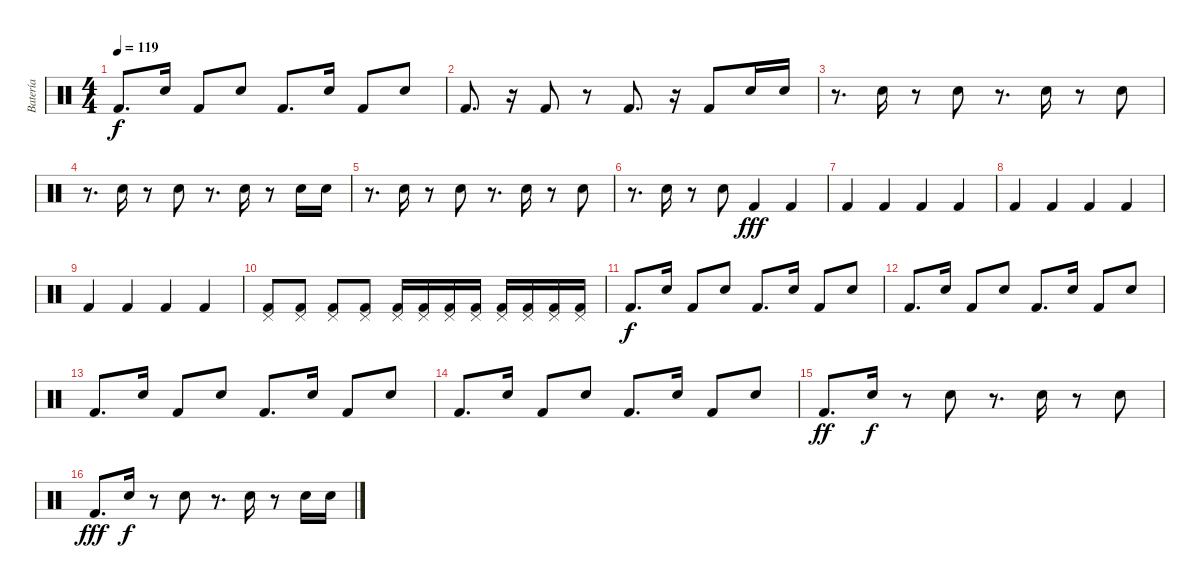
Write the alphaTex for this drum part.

\track ("Batería" "Batería") {instrument percussion}
\staff {score}
\articulation defaults
\ts (4 4)
\tempo 119
\clef neutral
\ks c "Kick (hit) 2".8{d dy f} "Electric Snare (hit)".16 "Kick (hit) 2".8 "Electric Snare (hit)".8 "Kick (hit) 2".8{d} "Electric Snare (hit)".16 "Kick (hit) 2".8 "Electric Snare (hit)".8
|
"Kick (hit) 2".8{d} r.16 "Kick (hit) 2".8 r.8 "Kick (hit) 2".8{d} r.16 "Kick (hit) 2".8 "Electric Snare (hit)".16 "Electric Snare (hit)".16 |
r.8{d} "Electric Snare (hit)".16 r.8 "Electric Snare (hit)".8 r.8{d} "Electric Snare (hit)".16 r.8 "Electric Snare (hit)".8 |
r.8{d} "Electric Snare (hit)".16 r.8 "Electric Snare (hit)".8 r.8{d} "Electric Snare (hit)".16 r.8 "Electric Snare (hit)".16 "Electric Snare (hit)".16 |
r.8{d} "Electric Snare (hit)".16 r.8 "Electric Snare (hit)".8 r.8{d} "Electric Snare (hit)".16 r.8 "Electric Snare (hit)".8 |
r.8{d} "Electric Snare (hit)".16 r.8 "Electric Snare (hit)".8 "Kick (hit) 2".4{dy fff} "Kick (hit) 2".4 |
"Kick (hit) 2".4 "Kick (hit) 2".4 "Kick (hit) 2".4 "Kick (hit) 2".4 |
"Kick (hit) 2".4 "Kick (hit) 2".4 "Kick (hit) 2".4 "Kick (hit) 2".4 |
"Kick (hit) 2".4 "Kick (hit) 2".4 "Kick (hit) 2".4 "Kick (hit) 2".4 |
("Kick (hit) 2" "Pedal Hi-Hat (hit)").8{volume 16 balance 15} ("Kick (hit) 2" "Pedal Hi-Hat (hit)").8{balance 1} ("Kick (hit) 2" "Pedal Hi-Hat (hit)").8{balance 15} ("Kick (hit) 2" "Pedal Hi-Hat (hit)").8{balance 1} ("Kick (hit) 2" "Pedal Hi-Hat (hit)").16{balance 4} ("Kick (hit) 2" "Pedal Hi-Hat (hit)").16{balance 8} ("Kick (hit) 2" "Pedal Hi-Hat (hit)").16{balance 11} ("Kick (hit) 2" "Pedal Hi-Hat (hit)").16{balance 15} ("Kick (hit) 2" "Pedal Hi-Hat (hit)").16{balance 13} ("Kick (hit) 2" "Pedal Hi-Hat (hit)").16{balance 12} ("Kick (hit) 2" "Pedal Hi-Hat (hit)").16{balance 10} ("Kick (hit) 2" "Pedal Hi-Hat (hit)").16{balance 8} |
"Kick (hit) 2".8{d dy f} "Electric Snare (hit)".16 "Kick (hit) 2".8 "Electric Snare (hit)".8 "Kick (hit) 2".8{d} "Electric Snare (hit)".16 "Kick (hit) 2".8 "Electric Snare (hit)".8 |
"Kick (hit) 2".8{d} "Electric Snare (hit)".16 "Kick (hit) 2".8 "Electric Snare (hit)".8 "Kick (hit) 2".8{d} "Electric Snare (hit)".16 "Kick (hit) 2".8 "Electric Snare (hit)".8 |
"Kick (hit) 2".8{d} "Electric Snare (hit)".16 "Kick (hit) 2".8 "Electric Snare (hit)".8 "Kick (hit) 2".8{d} "Electric Snare (hit)".16 "Kick (hit) 2".8 "Electric Snare (hit)".8 |
"Kick (hit) 2".8{d} "Electric Snare (hit)".16 "Kick (hit) 2".8 "Electric Snare (hit)".8 "Kick (hit) 2".8{d} "Electric Snare (hit)".16 "Kick (hit) 2".8 "Electric Snare (hit)".8 |
"Kick (hit) 2".8{d dy ff} "Electric Snare (hit)".16{dy f} r.8 "Electric Snare (hit)".8 r.8{d} "Electric Snare (hit)".16 r.8 "Electric Snare (hit)".8 |
"Kick (hit) 2".8{d dy fff} "Electric Snare (hit)".16{dy f} r.8 "Electric Snare (hit)".8 r.8{d} "Electric Snare (hit)".16 r.8 "Electric Snare (hit)".16 "Electric Snare (hit)".16
